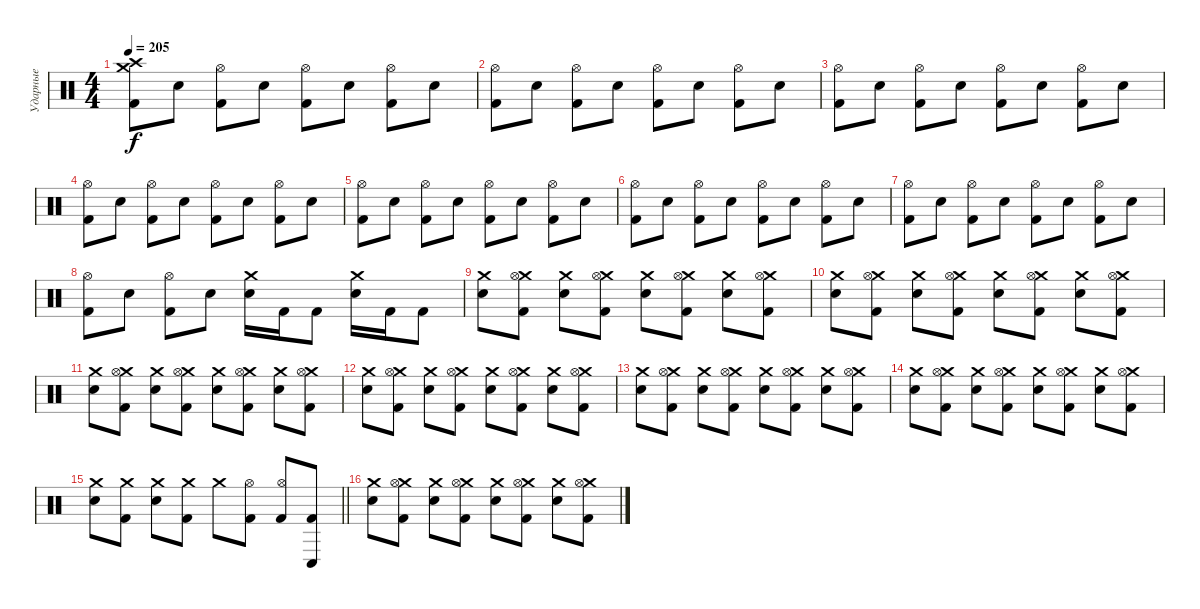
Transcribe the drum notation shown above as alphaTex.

\track ("Ударные" "Ударные") {instrument percussion}
\staff {score}
\articulation defaults
\ts (4 4)
\tempo 205
\clef neutral
\ks c
("Crash medium (hit)" "Crash high (hit)" "Kick (hit) 2").8{dy f} "Electric Snare (hit)".8 ("Hi-Hat (open)" "Kick (hit) 2").8 "Electric Snare (hit)".8 ("Hi-Hat (open)" "Kick (hit) 2").8 "Electric Snare (hit)".8 ("Hi-Hat (open)" "Kick (hit) 2").8 "Electric Snare (hit)".8 |
("Hi-Hat (open)" "Kick (hit) 2").8 "Electric Snare (hit)".8 ("Hi-Hat (open)" "Kick (hit) 2").8 "Electric Snare (hit)".8 ("Hi-Hat (open)" "Kick (hit) 2").8 "Electric Snare (hit)".8 ("Hi-Hat (open)" "Kick (hit) 2").8 "Electric Snare (hit)".8 |
("Hi-Hat (open)" "Kick (hit) 2").8 "Electric Snare (hit)".8 ("Hi-Hat (open)" "Kick (hit) 2").8 "Electric Snare (hit)".8 ("Hi-Hat (open)" "Kick (hit) 2").8 "Electric Snare (hit)".8 ("Hi-Hat (open)" "Kick (hit) 2").8 "Electric Snare (hit)".8 |
("Hi-Hat (open)" "Kick (hit) 2").8 "Electric Snare (hit)".8 ("Hi-Hat (open)" "Kick (hit) 2").8 "Electric Snare (hit)".8 ("Hi-Hat (open)" "Kick (hit) 2").8 "Electric Snare (hit)".8 ("Hi-Hat (open)" "Kick (hit) 2").8 "Electric Snare (hit)".8 |
("Hi-Hat (open)" "Kick (hit) 2").8 "Electric Snare (hit)".8 ("Hi-Hat (open)" "Kick (hit) 2").8 "Electric Snare (hit)".8 ("Hi-Hat (open)" "Kick (hit) 2").8 "Electric Snare (hit)".8 ("Hi-Hat (open)" "Kick (hit) 2").8 "Electric Snare (hit)".8 |
("Hi-Hat (open)" "Kick (hit) 2").8 "Electric Snare (hit)".8 ("Hi-Hat (open)" "Kick (hit) 2").8 "Electric Snare (hit)".8 ("Hi-Hat (open)" "Kick (hit) 2").8 "Electric Snare (hit)".8 ("Hi-Hat (open)" "Kick (hit) 2").8 "Electric Snare (hit)".8 |
("Hi-Hat (open)" "Kick (hit) 2").8 "Electric Snare (hit)".8 ("Hi-Hat (open)" "Kick (hit) 2").8 "Electric Snare (hit)".8 ("Hi-Hat (open)" "Kick (hit) 2").8 "Electric Snare (hit)".8 ("Hi-Hat (open)" "Kick (hit) 2").8 "Electric Snare (hit)".8 |
("Hi-Hat (open)" "Kick (hit) 2").8 "Electric Snare (hit)".8 ("Hi-Hat (open)" "Kick (hit) 2").8 "Electric Snare (hit)".8 ("Crash medium (hit)" "Electric Snare (hit)").16 "Kick (hit) 2".16 "Kick (hit) 2".8 ("Crash medium (hit)" "Electric Snare (hit)").16 "Kick (hit) 2".16 "Kick (hit) 2".8 |
("Crash medium (hit)" "Electric Snare (hit)").8 ("Crash medium (hit)" "Hi-Hat (open)" "Kick (hit) 2").8 ("Crash medium (hit)" "Electric Snare (hit)").8 ("Crash medium (hit)" "Hi-Hat (open)" "Kick (hit) 2").8 ("Crash medium (hit)" "Electric Snare (hit)").8 ("Crash medium (hit)" "Hi-Hat (open)" "Kick (hit) 2").8 ("Crash medium (hit)" "Electric Snare (hit)").8 ("Crash medium (hit)" "Hi-Hat (open)" "Kick (hit) 2").8 |
("Crash medium (hit)" "Electric Snare (hit)").8 ("Crash medium (hit)" "Hi-Hat (open)" "Kick (hit) 2").8 ("Crash medium (hit)" "Electric Snare (hit)").8 ("Crash medium (hit)" "Hi-Hat (open)" "Kick (hit) 2").8 ("Crash medium (hit)" "Electric Snare (hit)").8 ("Crash medium (hit)" "Hi-Hat (open)" "Kick (hit) 2").8 ("Crash medium (hit)" "Electric Snare (hit)").8 ("Crash medium (hit)" "Hi-Hat (open)" "Kick (hit) 2").8 |
("Crash medium (hit)" "Electric Snare (hit)").8 ("Crash medium (hit)" "Hi-Hat (open)" "Kick (hit) 2").8 ("Crash medium (hit)" "Electric Snare (hit)").8 ("Crash medium (hit)" "Hi-Hat (open)" "Kick (hit) 2").8 ("Crash medium (hit)" "Electric Snare (hit)").8 ("Crash medium (hit)" "Hi-Hat (open)" "Kick (hit) 2").8 ("Crash medium (hit)" "Electric Snare (hit)").8 ("Crash medium (hit)" "Hi-Hat (open)" "Kick (hit) 2").8 |
("Crash medium (hit)" "Electric Snare (hit)").8 ("Crash medium (hit)" "Hi-Hat (open)" "Kick (hit) 2").8 ("Crash medium (hit)" "Electric Snare (hit)").8 ("Crash medium (hit)" "Hi-Hat (open)" "Kick (hit) 2").8 ("Crash medium (hit)" "Electric Snare (hit)").8 ("Crash medium (hit)" "Hi-Hat (open)" "Kick (hit) 2").8 ("Crash medium (hit)" "Electric Snare (hit)").8 ("Crash medium (hit)" "Hi-Hat (open)" "Kick (hit) 2").8 |
("Crash medium (hit)" "Electric Snare (hit)").8 ("Crash medium (hit)" "Hi-Hat (open)" "Kick (hit) 2").8 ("Crash medium (hit)" "Electric Snare (hit)").8 ("Crash medium (hit)" "Hi-Hat (open)" "Kick (hit) 2").8 ("Crash medium (hit)" "Electric Snare (hit)").8 ("Crash medium (hit)" "Hi-Hat (open)" "Kick (hit) 2").8 ("Crash medium (hit)" "Electric Snare (hit)").8 ("Crash medium (hit)" "Hi-Hat (open)" "Kick (hit) 2").8 |
("Crash medium (hit)" "Electric Snare (hit)").8 ("Crash medium (hit)" "Hi-Hat (open)" "Kick (hit) 2").8 ("Crash medium (hit)" "Electric Snare (hit)").8 ("Crash medium (hit)" "Hi-Hat (open)" "Kick (hit) 2").8 ("Crash medium (hit)" "Electric Snare (hit)").8 ("Crash medium (hit)" "Hi-Hat (open)" "Kick (hit) 2").8 ("Crash medium (hit)" "Electric Snare (hit)").8 ("Crash medium (hit)" "Hi-Hat (open)" "Kick (hit) 2").8 |
\barLineRight lightlight
("Crash medium (hit)" "Electric Snare (hit)").8 ("Crash medium (hit)" "Kick (hit) 2").8 ("Crash medium (hit)" "Electric Snare (hit)").8 ("Crash medium (hit)" "Kick (hit) 2").8 "Crash medium (hit)".8 ("Hi-Hat (open)" "Kick (hit) 2").8 ("Hi-Hat (open)" "Kick (hit) 2").8 ("Conga low (hit)" "Kick (hit) 2").8 |
("Crash medium (hit)" "Electric Snare (hit)").8 ("Crash medium (hit)" "Hi-Hat (open)" "Kick (hit) 2").8 ("Crash medium (hit)" "Electric Snare (hit)").8 ("Crash medium (hit)" "Hi-Hat (open)" "Kick (hit) 2").8 ("Crash medium (hit)" "Electric Snare (hit)").8 ("Crash medium (hit)" "Hi-Hat (open)" "Kick (hit) 2").8 ("Crash medium (hit)" "Electric Snare (hit)").8 ("Crash medium (hit)" "Hi-Hat (open)" "Kick (hit) 2").8
